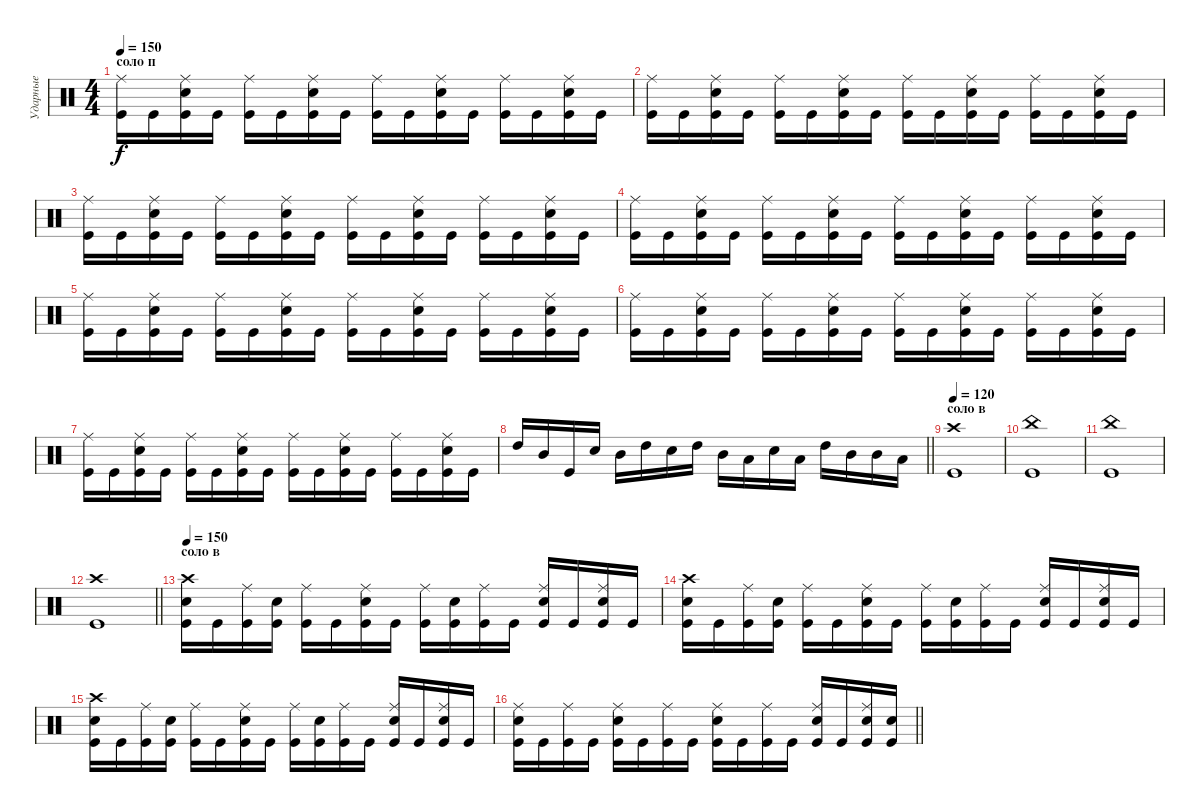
\track ("Ударные" "Ударные") {instrument percussion}
\staff {score}
\articulation defaults
\ts (4 4)
\section ("" "соло п")
\tempo 150
\clef neutral
\ks c
("Kick (hit)" "Ride (middle)").16{dy f} "Kick (hit)".16 ("Kick (hit)" "Snare (hit) 2" "Ride (middle)").16 "Kick (hit)".16 ("Kick (hit)" "Ride (middle)").16 "Kick (hit)".16 ("Kick (hit)" "Snare (hit) 2" "Ride (middle)").16 "Kick (hit)".16 ("Kick (hit)" "Ride (middle)").16 "Kick (hit)".16 ("Kick (hit)" "Snare (hit) 2" "Ride (middle)").16 "Kick (hit)".16 ("Kick (hit)" "Ride (middle)").16 "Kick (hit)".16 ("Kick (hit)" "Snare (hit) 2" "Ride (middle)").16 "Kick (hit)".16 |
("Kick (hit)" "Ride (middle)").16 "Kick (hit)".16 ("Kick (hit)" "Snare (hit) 2" "Ride (middle)").16 "Kick (hit)".16 ("Kick (hit)" "Ride (middle)").16 "Kick (hit)".16 ("Kick (hit)" "Snare (hit) 2" "Ride (middle)").16 "Kick (hit)".16 ("Kick (hit)" "Ride (middle)").16 "Kick (hit)".16 ("Kick (hit)" "Snare (hit) 2" "Ride (middle)").16 "Kick (hit)".16 ("Kick (hit)" "Ride (middle)").16 "Kick (hit)".16 ("Kick (hit)" "Snare (hit) 2" "Ride (middle)").16 "Kick (hit)".16 |
("Kick (hit)" "Ride (middle)").16 "Kick (hit)".16 ("Kick (hit)" "Snare (hit) 2" "Ride (middle)").16 "Kick (hit)".16 ("Kick (hit)" "Ride (middle)").16 "Kick (hit)".16 ("Kick (hit)" "Snare (hit) 2" "Ride (middle)").16 "Kick (hit)".16 ("Kick (hit)" "Ride (middle)").16 "Kick (hit)".16 ("Kick (hit)" "Snare (hit) 2" "Ride (middle)").16 "Kick (hit)".16 ("Kick (hit)" "Ride (middle)").16 "Kick (hit)".16 ("Kick (hit)" "Snare (hit) 2" "Ride (middle)").16 "Kick (hit)".16 |
("Kick (hit)" "Ride (middle)").16 "Kick (hit)".16 ("Kick (hit)" "Snare (hit) 2" "Ride (middle)").16 "Kick (hit)".16 ("Kick (hit)" "Ride (middle)").16 "Kick (hit)".16 ("Kick (hit)" "Snare (hit) 2" "Ride (middle)").16 "Kick (hit)".16 ("Kick (hit)" "Ride (middle)").16 "Kick (hit)".16 ("Kick (hit)" "Snare (hit) 2" "Ride (middle)").16 "Kick (hit)".16 ("Kick (hit)" "Ride (middle)").16 "Kick (hit)".16 ("Kick (hit)" "Snare (hit) 2" "Ride (middle)").16 "Kick (hit)".16 |
("Kick (hit)" "Ride (middle)").16 "Kick (hit)".16 ("Kick (hit)" "Snare (hit) 2" "Ride (middle)").16 "Kick (hit)".16 ("Kick (hit)" "Ride (middle)").16 "Kick (hit)".16 ("Kick (hit)" "Snare (hit) 2" "Ride (middle)").16 "Kick (hit)".16 ("Kick (hit)" "Ride (middle)").16 "Kick (hit)".16 ("Kick (hit)" "Snare (hit) 2" "Ride (middle)").16 "Kick (hit)".16 ("Kick (hit)" "Ride (middle)").16 "Kick (hit)".16 ("Kick (hit)" "Snare (hit) 2" "Ride (middle)").16 "Kick (hit)".16 |
("Kick (hit)" "Ride (middle)").16 "Kick (hit)".16 ("Kick (hit)" "Snare (hit) 2" "Ride (middle)").16 "Kick (hit)".16 ("Kick (hit)" "Ride (middle)").16 "Kick (hit)".16 ("Kick (hit)" "Snare (hit) 2" "Ride (middle)").16 "Kick (hit)".16 ("Kick (hit)" "Ride (middle)").16 "Kick (hit)".16 ("Kick (hit)" "Snare (hit) 2" "Ride (middle)").16 "Kick (hit)".16 ("Kick (hit)" "Ride (middle)").16 "Kick (hit)".16 ("Kick (hit)" "Snare (hit) 2" "Ride (middle)").16 "Kick (hit)".16 |
("Kick (hit)" "Ride (middle)").16 "Kick (hit)".16 ("Kick (hit)" "Snare (hit) 2" "Ride (middle)").16 "Kick (hit)".16 ("Kick (hit)" "Ride (middle)").16 "Kick (hit)".16 ("Kick (hit)" "Snare (hit) 2" "Ride (middle)").16 "Kick (hit)".16 ("Kick (hit)" "Ride (middle)").16 "Kick (hit)".16 ("Kick (hit)" "Snare (hit) 2" "Ride (middle)").16 "Kick (hit)".16 ("Kick (hit)" "Ride (middle)").16 "Kick (hit)".16 ("Kick (hit)" "Snare (hit) 2" "Ride (middle)").16 "Kick (hit)".16 |
\barLineRight lightlight "High Tom (hit)".16 "Mid Tom (hit)".16 "Kick (hit)".16 "Snare (hit) 2".16 "Mid Tom (hit)".16 "High Tom (hit)".16 "Snare (hit) 2".16 "High Tom (hit)".16 "Mid Tom (hit)".16 "Low Tom (hit)".16 "Snare (hit) 2".16 "Low Tom (hit)".16 "High Tom (hit)".16 "Mid Tom (hit)".16 "Mid Tom (hit)".16 "Low Tom (hit)".16
|
\section ("" "соло в")
\tempo 120
("Crash high (hit)" "Kick (hit)").1 |
("Kick (hit)" "China (hit)").1 |
("Kick (hit)" "China (hit)").1 |
\barLineRight lightlight
("Kick (hit)" "Crash high (hit)").1 |
\section ("" "соло в")
\tempo 150
("Kick (hit)" "Crash high (hit)" "Snare (hit) 2").16 "Kick (hit)".16 ("Kick (hit)" "Ride (middle)").16 ("Kick (hit)" "Snare (hit) 2").16 ("Kick (hit)" "Ride (middle)").16 "Kick (hit)".16 ("Kick (hit)" "Snare (hit) 2" "Ride (middle)").16 "Kick (hit)".16 ("Kick (hit)" "Ride (middle)").16 ("Kick (hit)" "Snare (hit) 2").16 ("Kick (hit)" "Ride (middle)").16 "Kick (hit)".16 ("Kick (hit)" "Ride (middle)" "Snare (hit) 2").16 "Kick (hit)".16 ("Kick (hit)" "Ride (middle)" "Snare (hit) 2").16 "Kick (hit)".16 |
("Kick (hit)" "Crash high (hit)" "Snare (hit) 2").16 "Kick (hit)".16 ("Kick (hit)" "Ride (middle)").16 ("Kick (hit)" "Snare (hit) 2").16 ("Kick (hit)" "Ride (middle)").16 "Kick (hit)".16 ("Kick (hit)" "Snare (hit) 2" "Ride (middle)").16 "Kick (hit)".16 ("Kick (hit)" "Ride (middle)").16 ("Kick (hit)" "Snare (hit) 2").16 ("Kick (hit)" "Ride (middle)").16 "Kick (hit)".16 ("Kick (hit)" "Ride (middle)" "Snare (hit) 2").16 "Kick (hit)".16 ("Kick (hit)" "Ride (middle)" "Snare (hit) 2").16 "Kick (hit)".16 |
("Kick (hit)" "Crash high (hit)" "Snare (hit) 2").16 "Kick (hit)".16 ("Kick (hit)" "Ride (middle)").16 ("Kick (hit)" "Snare (hit) 2").16 ("Kick (hit)" "Ride (middle)").16 "Kick (hit)".16 ("Kick (hit)" "Snare (hit) 2" "Ride (middle)").16 "Kick (hit)".16 ("Kick (hit)" "Ride (middle)").16 ("Kick (hit)" "Snare (hit) 2").16 ("Kick (hit)" "Ride (middle)").16 "Kick (hit)".16 ("Kick (hit)" "Ride (middle)" "Snare (hit) 2").16 "Kick (hit)".16 ("Kick (hit)" "Ride (middle)" "Snare (hit) 2").16 "Kick (hit)".16 |
\barLineRight lightlight
("Ride (middle)" "Kick (hit)" "Snare (hit) 2").16 "Kick (hit)".16 ("Ride (middle)" "Kick (hit)").16 "Kick (hit)".16 ("Ride (middle)" "Kick (hit)" "Snare (hit) 2").16 "Kick (hit)".16 ("Ride (middle)" "Kick (hit)").16 "Kick (hit)".16 ("Ride (middle)" "Kick (hit)" "Snare (hit) 2").16 "Kick (hit)".16 ("Ride (middle)" "Kick (hit)").16 "Kick (hit)".16 ("Ride (middle)" "Kick (hit)" "Snare (hit) 2").16 "Kick (hit)".16 ("Kick (hit)" "Ride (middle)" "Snare (hit) 2").16 ("Kick (hit)" "Snare (hit) 2").16
